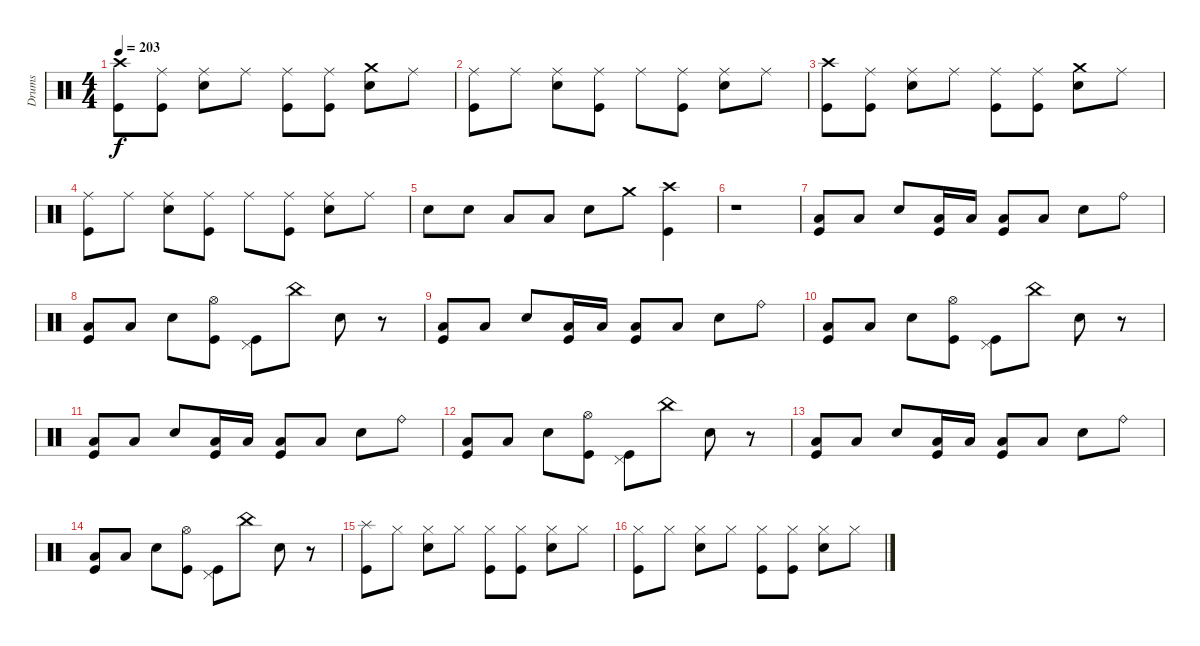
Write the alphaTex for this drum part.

\track ("Drums" "Drums") {instrument percussion}
\staff {score}
\articulation defaults
\ts (4 4)
\tempo 203
\clef neutral
\ks c
("Crash high (hit)" "Kick (hit)").8{dy f} ("Ride (middle)" "Kick (hit)").8 ("Ride (middle)" "Snare (hit) 2").8 "Ride (middle)".8 ("Ride (middle)" "Kick (hit)").8 ("Ride (middle)" "Kick (hit)").8 ("Crash medium (hit)" "Snare (hit) 2").8 "Ride (middle)".8 |
("Ride (middle)" "Kick (hit)").8 "Ride (middle)".8 ("Ride (middle)" "Snare (hit) 2").8 ("Ride (middle)" "Kick (hit)").8 "Ride (middle)".8 ("Ride (middle)" "Kick (hit)").8 ("Ride (middle)" "Snare (hit) 2").8 "Ride (middle)".8 |
("Crash high (hit)" "Kick (hit)").8 ("Ride (middle)" "Kick (hit)").8 ("Ride (middle)" "Snare (hit) 2").8 "Ride (middle)".8 ("Ride (middle)" "Kick (hit)").8 ("Ride (middle)" "Kick (hit)").8 ("Crash medium (hit)" "Snare (hit) 2").8 "Ride (middle)".8 |
("Ride (middle)" "Kick (hit)").8 "Ride (middle)".8 ("Ride (middle)" "Snare (hit) 2").8 ("Ride (middle)" "Kick (hit)").8 "Ride (middle)".8 ("Ride (middle)" "Kick (hit)").8 ("Ride (middle)" "Snare (hit) 2").8 "Ride (middle)".8 |
"Snare (hit) 2".8 "Snare (hit) 2".8 "Low Tom (hit)".8 "Low Tom (hit)".8 "Snare (hit) 2".8 "Crash medium (hit)".8 ("Crash high (hit)" "Kick (hit)").4 |
r.1 |
("Low Floor Tom (hit)" "Kick (hit)").8 "Low Floor Tom (hit)".8 "Snare (hit) 2".8 ("Low Tom (hit)" "Kick (hit)").16 "Low Tom (hit)".16 ("Low Floor Tom (hit)" "Kick (hit)").8 "Low Floor Tom (hit)".8 "Snare (hit) 2".8 "Ride (bell)".8 |
("Low Floor Tom (hit)" "Kick (hit)").8 "Low Floor Tom (hit)".8 "Snare (hit) 2".8 ("Hi-Hat (open)" "Kick (hit)").8 ("Pedal Hi-Hat (hit)" "Kick (hit)").8 "China (hit)".8 "Snare (hit) 2".8 r.8 |
("Low Floor Tom (hit)" "Kick (hit)").8 "Low Floor Tom (hit)".8 "Snare (hit) 2".8 ("Low Tom (hit)" "Kick (hit)").16 "Low Tom (hit)".16 ("Low Floor Tom (hit)" "Kick (hit)").8 "Low Floor Tom (hit)".8 "Snare (hit) 2".8 "Ride (bell)".8 |
("Low Floor Tom (hit)" "Kick (hit)").8 "Low Floor Tom (hit)".8 "Snare (hit) 2".8 ("Hi-Hat (open)" "Kick (hit)").8 ("Pedal Hi-Hat (hit)" "Kick (hit)").8 "China (hit)".8 "Snare (hit) 2".8 r.8 |
("Low Floor Tom (hit)" "Kick (hit)").8 "Low Floor Tom (hit)".8 "Snare (hit) 2".8 ("Low Tom (hit)" "Kick (hit)").16 "Low Tom (hit)".16 ("Low Floor Tom (hit)" "Kick (hit)").8 "Low Floor Tom (hit)".8 "Snare (hit) 2".8 "Ride (bell)".8 |
("Low Floor Tom (hit)" "Kick (hit)").8 "Low Floor Tom (hit)".8 "Snare (hit) 2".8 ("Hi-Hat (open)" "Kick (hit)").8 ("Pedal Hi-Hat (hit)" "Kick (hit)").8 "China (hit)".8 "Snare (hit) 2".8 r.8 |
("Low Floor Tom (hit)" "Kick (hit)").8 "Low Floor Tom (hit)".8 "Snare (hit) 2".8 ("Low Tom (hit)" "Kick (hit)").16 "Low Tom (hit)".16 ("Low Floor Tom (hit)" "Kick (hit)").8 "Low Floor Tom (hit)".8 "Snare (hit) 2".8 "Ride (bell)".8 |
("Low Floor Tom (hit)" "Kick (hit)").8 "Low Floor Tom (hit)".8 "Snare (hit) 2".8 ("Hi-Hat (open)" "Kick (hit)").8 ("Pedal Hi-Hat (hit)" "Kick (hit)").8 "China (hit)".8 "Snare (hit) 2".8 r.8 |
("Splash (hit)" "Kick (hit)").8 "Hi-Hat (closed)".8 ("Hi-Hat (closed)" "Snare (hit) 2").8 "Hi-Hat (closed)".8 ("Hi-Hat (closed)" "Kick (hit)").8 ("Hi-Hat (closed)" "Kick (hit)").8 ("Hi-Hat (closed)" "Snare (hit) 2").8 "Hi-Hat (closed)".8 |
("Hi-Hat (closed)" "Kick (hit)").8 "Hi-Hat (closed)".8 ("Hi-Hat (closed)" "Snare (hit) 2").8 "Hi-Hat (closed)".8 ("Hi-Hat (closed)" "Kick (hit)").8 ("Hi-Hat (closed)" "Kick (hit)").8 ("Hi-Hat (closed)" "Snare (hit) 2").8 "Hi-Hat (closed)".8
